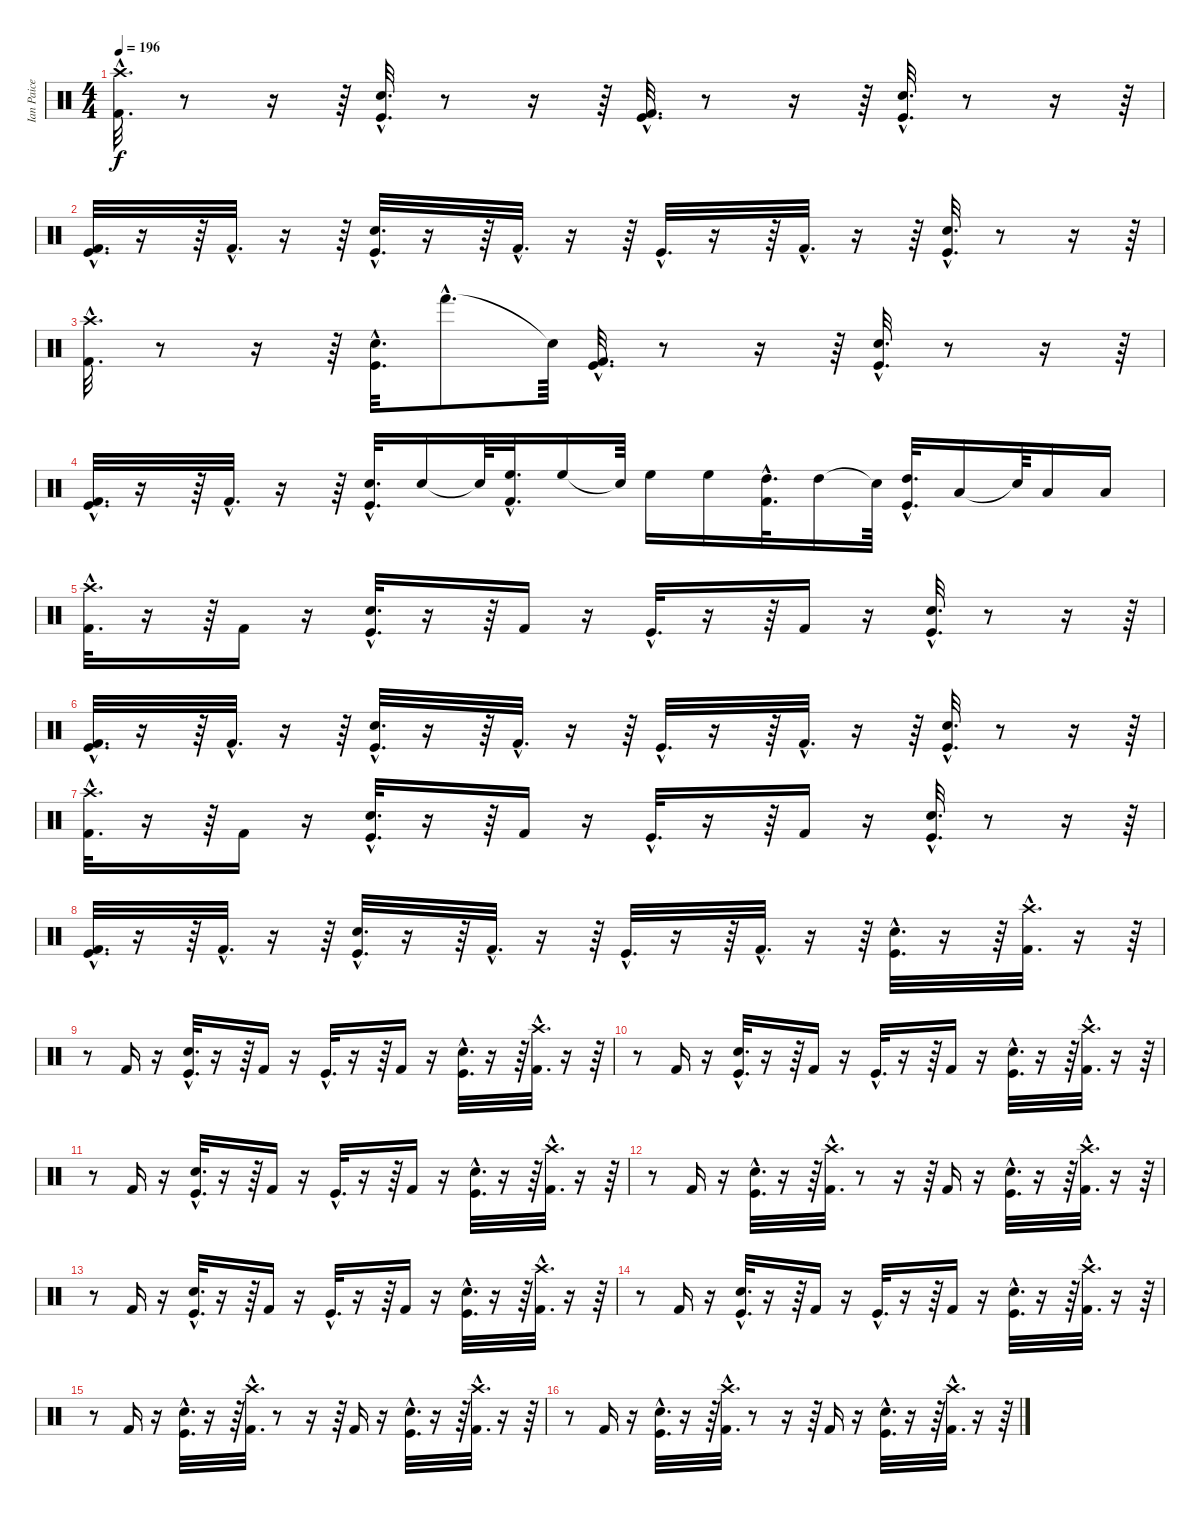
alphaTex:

\track ("Ian Paice" "Ian Paice") {instrument percussion}
\staff {score}
\articulation defaults
\ts (4 4)
\tempo 196
\clef neutral
\ks c
("Kick (hit) 2"{hac} "Crash high (hit)"{hac}).32{d dy f} r.8 r.16 r.64 ("Kick (hit)"{hac} "Snare (hit) 2"{hac}).32{d} r.8 r.16 r.64 ("Kick (hit)"{hac} "Kick (hit) 2"{hac}).32{d} r.8 r.16 r.64 ("Kick (hit)"{hac} "Snare (hit) 2"{hac}).32{d} r.8 r.16 r.64 |
("Kick (hit)"{hac} "Kick (hit) 2"{hac}).32{d} r.16 r.64 "Kick (hit) 2"{hac}.32{d} r.16 r.64 ("Snare (hit) 2"{hac} "Kick (hit)"{hac}).32{d} r.16 r.64 "Kick (hit) 2"{hac}.32{d} r.16 r.64 "Kick (hit)"{hac}.32{d} r.16 r.64 "Kick (hit) 2"{hac}.32{d} r.16 r.64 ("Snare (hit) 2"{hac} "Kick (hit)"{hac}).32{d} r.8 r.16 r.64 |
("Kick (hit) 2"{hac} "Crash high (hit)"{hac}).32{d} r.8 r.16 r.64 ("Kick (hit)"{hac} "Snare (hit) 2"{hac}).32{d} "Hand (hit)"{hac}.8{d} "Snare (hit)"{t}.64 ("Kick (hit)"{hac} "Kick (hit) 2"{hac}).32{d} r.8 r.16 r.64 ("Kick (hit)"{hac} "Snare (hit) 2"{hac}).32{d} r.8 r.16 r.64 |
("Kick (hit)"{hac} "Kick (hit) 2"{hac}).32{d} r.16 r.64 "Kick (hit) 2"{hac}.32{d} r.16 r.64 ("Snare (hit) 2"{hac} "Kick (hit)"{hac}).32{d} "Snare (hit) 2".16 "Snare (hit)"{t}.64 ("High Floor Tom (hit)"{hac} "Kick (hit) 2"{hac}).32{d} "High Floor Tom (hit)".16 "Snare (hit)"{t}.64 "High Floor Tom (hit)".16 "High Floor Tom (hit)".16 ("High Tom (hit)"{hac} "Kick (hit) 2"{hac}).32{d} "High Tom (hit)".16 "Snare (hit)"{t}.64 ("Kick (hit)"{hac} "High Tom (hit)"{hac}).32{d} "Low Tom (hit)".16 "Snare (hit)"{t}.64 "Low Tom (hit)".16 "Low Floor Tom (hit)".16 |
("Kick (hit) 2"{hac} "Crash high (hit)"{hac}).32{d} r.16 r.64 "Kick (hit) 2".16 r.16 ("Kick (hit)"{hac} "Snare (hit) 2"{hac}).32{d} r.16 r.64 "Kick (hit) 2".16 r.16 "Kick (hit)"{hac}.32{d} r.16 r.64 "Kick (hit) 2".16 r.16 ("Kick (hit)"{hac} "Snare (hit) 2"{hac}).32{d} r.8 r.16 r.64 |
("Kick (hit)"{hac} "Kick (hit) 2"{hac}).32{d} r.16 r.64 "Kick (hit) 2"{hac}.32{d} r.16 r.64 ("Snare (hit) 2"{hac} "Kick (hit)"{hac}).32{d} r.16 r.64 "Kick (hit) 2"{hac}.32{d} r.16 r.64 "Kick (hit)"{hac}.32{d} r.16 r.64 "Kick (hit) 2"{hac}.32{d} r.16 r.64 ("Snare (hit) 2"{hac} "Kick (hit)"{hac}).32{d} r.8 r.16 r.64 |
("Kick (hit) 2"{hac} "Crash high (hit)"{hac}).32{d} r.16 r.64 "Kick (hit) 2".16 r.16 ("Kick (hit)"{hac} "Snare (hit) 2"{hac}).32{d} r.16 r.64 "Kick (hit) 2".16 r.16 "Kick (hit)"{hac}.32{d} r.16 r.64 "Kick (hit) 2".16 r.16 ("Kick (hit)"{hac} "Snare (hit) 2"{hac}).32{d} r.8 r.16 r.64 |
("Kick (hit)"{hac} "Kick (hit) 2"{hac}).32{d} r.16 r.64 "Kick (hit) 2"{hac}.32{d} r.16 r.64 ("Snare (hit) 2"{hac} "Kick (hit)"{hac}).32{d} r.16 r.64 "Kick (hit) 2"{hac}.32{d} r.16 r.64 "Kick (hit)"{hac}.32{d} r.16 r.64 "Kick (hit) 2"{hac}.32{d} r.16 r.64 ("Snare (hit) 2"{hac} "Kick (hit)"{hac}).32{d} r.16 r.64 ("Kick (hit) 2"{hac} "Crash high (hit)"{hac}).32{d} r.16 r.64 |
r.8 "Kick (hit) 2".16 r.16 ("Kick (hit)"{hac} "Snare (hit) 2"{hac}).32{d} r.16 r.64 "Kick (hit) 2".16 r.16 "Kick (hit)"{hac}.32{d} r.16 r.64 "Kick (hit) 2".16 r.16 ("Kick (hit)"{hac} "Snare (hit) 2"{hac}).32{d} r.16 r.64 ("Kick (hit) 2"{hac} "Crash high (hit)"{hac}).32{d} r.16 r.64 |
r.8 "Kick (hit) 2".16 r.16 ("Kick (hit)"{hac} "Snare (hit) 2"{hac}).32{d} r.16 r.64 "Kick (hit) 2".16 r.16 "Kick (hit)"{hac}.32{d} r.16 r.64 "Kick (hit) 2".16 r.16 ("Kick (hit)"{hac} "Snare (hit) 2"{hac}).32{d} r.16 r.64 ("Kick (hit) 2"{hac} "Crash high (hit)"{hac}).32{d} r.16 r.64 |
r.8 "Kick (hit) 2".16 r.16 ("Kick (hit)"{hac} "Snare (hit) 2"{hac}).32{d} r.16 r.64 "Kick (hit) 2".16 r.16 "Kick (hit)"{hac}.32{d} r.16 r.64 "Kick (hit) 2".16 r.16 ("Kick (hit)"{hac} "Snare (hit) 2"{hac}).32{d} r.16 r.64 ("Kick (hit) 2"{hac} "Crash high (hit)"{hac}).32{d} r.16 r.64 |
r.8 "Kick (hit) 2".16 r.16 ("Kick (hit)"{hac} "Snare (hit) 2"{hac}).32{d} r.16 r.64 ("Kick (hit) 2"{hac} "Crash high (hit)"{hac}).32{d} r.8 r.16 r.64 "Kick (hit) 2".16 r.16 ("Kick (hit)"{hac} "Snare (hit) 2"{hac}).32{d} r.16 r.64 ("Kick (hit) 2"{hac} "Crash high (hit)"{hac}).32{d} r.16 r.64 |
r.8 "Kick (hit) 2".16 r.16 ("Kick (hit)"{hac} "Snare (hit) 2"{hac}).32{d} r.16 r.64 "Kick (hit) 2".16 r.16 "Kick (hit)"{hac}.32{d} r.16 r.64 "Kick (hit) 2".16 r.16 ("Kick (hit)"{hac} "Snare (hit) 2"{hac}).32{d} r.16 r.64 ("Kick (hit) 2"{hac} "Crash high (hit)"{hac}).32{d} r.16 r.64 |
r.8 "Kick (hit) 2".16 r.16 ("Kick (hit)"{hac} "Snare (hit) 2"{hac}).32{d} r.16 r.64 "Kick (hit) 2".16 r.16 "Kick (hit)"{hac}.32{d} r.16 r.64 "Kick (hit) 2".16 r.16 ("Kick (hit)"{hac} "Snare (hit) 2"{hac}).32{d} r.16 r.64 ("Kick (hit) 2"{hac} "Crash high (hit)"{hac}).32{d} r.16 r.64 |
r.8 "Kick (hit) 2".16 r.16 ("Kick (hit)"{hac} "Snare (hit) 2"{hac}).32{d} r.16 r.64 ("Kick (hit) 2"{hac} "Crash high (hit)"{hac}).32{d} r.8 r.16 r.64 "Kick (hit) 2".16 r.16 ("Kick (hit)"{hac} "Snare (hit) 2"{hac}).32{d} r.16 r.64 ("Kick (hit) 2"{hac} "Crash high (hit)"{hac}).32{d} r.16 r.64 |
r.8 "Kick (hit) 2".16 r.16 ("Kick (hit)"{hac} "Snare (hit) 2"{hac}).32{d} r.16 r.64 ("Kick (hit) 2"{hac} "Crash high (hit)"{hac}).32{d} r.8 r.16 r.64 "Kick (hit) 2".16 r.16 ("Kick (hit)"{hac} "Snare (hit) 2"{hac}).32{d} r.16 r.64 ("Kick (hit) 2"{hac} "Crash high (hit)"{hac}).32{d} r.16 r.64
